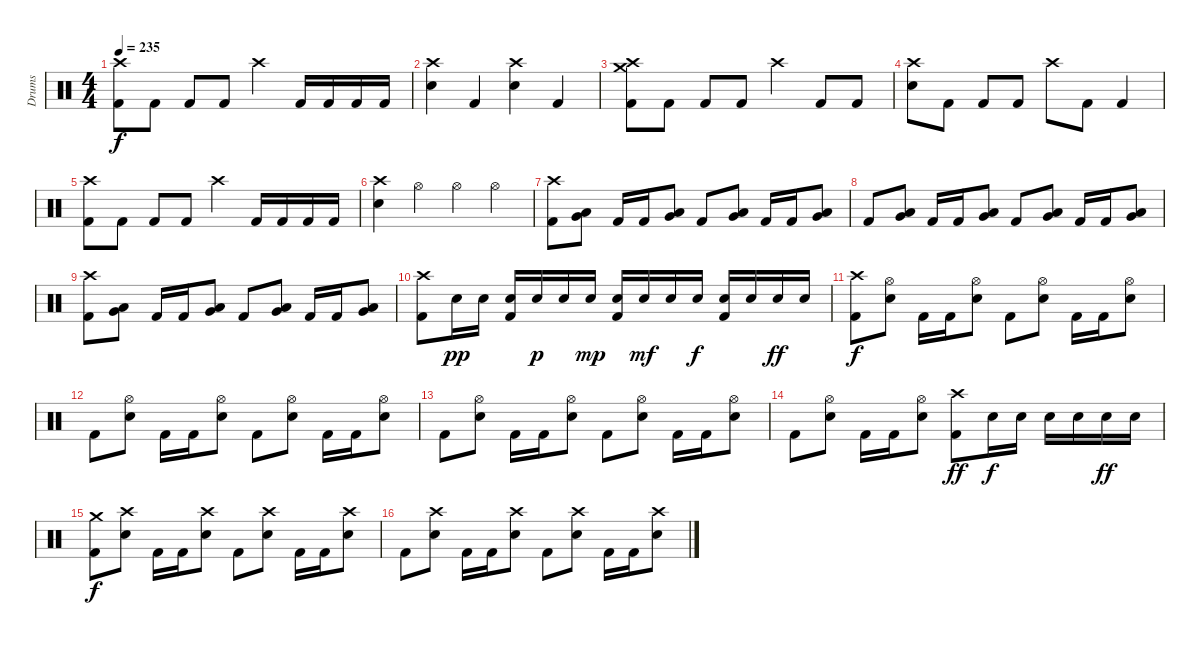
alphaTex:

\track ("Drums" "Drums") {instrument percussion}
\staff {score}
\articulation defaults
\ts (4 4)
\tempo 235
\clef neutral
\ks c
("Crash high (hit)" "Kick (hit) 2").8{dy f} "Kick (hit) 2".8 "Kick (hit) 2".8 "Kick (hit) 2".8 "Crash high (hit)".4 "Kick (hit) 2".16 "Kick (hit) 2".16 "Kick (hit) 2".16 "Kick (hit) 2".16 |
("Crash high (hit)" "Electric Snare (hit)").4 "Kick (hit) 2".4 ("Crash high (hit)" "Electric Snare (hit)").4 "Kick (hit) 2".4 |
("Crash high (hit)" "Crash medium (hit)" "Kick (hit) 2").8 "Kick (hit) 2".8 "Kick (hit) 2".8 "Kick (hit) 2".8 "Crash high (hit)".4 "Kick (hit) 2".8 "Kick (hit) 2".8 |
("Crash high (hit)" "Electric Snare (hit)").8 "Kick (hit) 2".8 "Kick (hit) 2".8 "Kick (hit) 2".8 "Crash high (hit)".8 "Kick (hit) 2".8 "Kick (hit) 2".4 |
("Crash high (hit)" "Kick (hit) 2").8 "Kick (hit) 2".8 "Kick (hit) 2".8 "Kick (hit) 2".8 "Crash high (hit)".4 "Kick (hit) 2".16 "Kick (hit) 2".16 "Kick (hit) 2".16 "Kick (hit) 2".16 |
("Crash high (hit)" "Electric Snare (hit)").4 "Hi-Hat (open)".4 "Hi-Hat (open)".4 "Hi-Hat (open)".4 |
("Crash high (hit)" "Kick (hit) 2").8 ("Low Floor Tom (hit)" "Very Low Tom (hit)").8 "Kick (hit) 2".16 "Kick (hit) 2".16 ("Low Floor Tom (hit)" "Very Low Tom (hit)").8 "Kick (hit) 2".8 ("Low Floor Tom (hit)" "Very Low Tom (hit)").8 "Kick (hit) 2".16 "Kick (hit) 2".16 ("Low Floor Tom (hit)" "Very Low Tom (hit)").8 |
"Kick (hit) 2".8 ("Low Floor Tom (hit)" "Very Low Tom (hit)").8 "Kick (hit) 2".16 "Kick (hit) 2".16 ("Low Floor Tom (hit)" "Very Low Tom (hit)").8 "Kick (hit) 2".8 ("Low Floor Tom (hit)" "Very Low Tom (hit)").8 "Kick (hit) 2".16 "Kick (hit) 2".16 ("Low Floor Tom (hit)" "Very Low Tom (hit)").8 |
("Crash high (hit)" "Kick (hit) 2").8 ("Low Floor Tom (hit)" "Very Low Tom (hit)").8 "Kick (hit) 2".16 "Kick (hit) 2".16 ("Low Floor Tom (hit)" "Very Low Tom (hit)").8 "Kick (hit) 2".8 ("Low Floor Tom (hit)" "Very Low Tom (hit)").8 "Kick (hit) 2".16 "Kick (hit) 2".16 ("Low Floor Tom (hit)" "Very Low Tom (hit)").8 |
("Crash high (hit)" "Kick (hit) 2").8 "Electric Snare (hit)".16{dy pp} "Electric Snare (hit)".16 ("Electric Snare (hit)" "Kick (hit) 2").16 "Electric Snare (hit)".16{dy p} "Electric Snare (hit)".16 "Electric Snare (hit)".16{dy mp} ("Electric Snare (hit)" "Kick (hit) 2").16 "Electric Snare (hit)".16{dy mf} "Electric Snare (hit)".16 "Electric Snare (hit)".16{dy f} ("Electric Snare (hit)" "Kick (hit) 2").16 "Electric Snare (hit)".16 "Electric Snare (hit)".16{dy ff} "Electric Snare (hit)".16 |
("Crash high (hit)" "Kick (hit) 2").8{dy f} ("Hi-Hat (open)" "Electric Snare (hit)").8 "Kick (hit) 2".16 "Kick (hit) 2".16 ("Hi-Hat (open)" "Electric Snare (hit)").8 "Kick (hit) 2".8 ("Hi-Hat (open)" "Electric Snare (hit)").8 "Kick (hit) 2".16 "Kick (hit) 2".16 ("Hi-Hat (open)" "Electric Snare (hit)").8 |
"Kick (hit) 2".8 ("Hi-Hat (open)" "Electric Snare (hit)").8 "Kick (hit) 2".16 "Kick (hit) 2".16 ("Hi-Hat (open)" "Electric Snare (hit)").8 "Kick (hit) 2".8 ("Hi-Hat (open)" "Electric Snare (hit)").8 "Kick (hit) 2".16 "Kick (hit) 2".16 ("Hi-Hat (open)" "Electric Snare (hit)").8 |
"Kick (hit) 2".8 ("Hi-Hat (open)" "Electric Snare (hit)").8 "Kick (hit) 2".16 "Kick (hit) 2".16 ("Hi-Hat (open)" "Electric Snare (hit)").8 "Kick (hit) 2".8 ("Hi-Hat (open)" "Electric Snare (hit)").8 "Kick (hit) 2".16 "Kick (hit) 2".16 ("Hi-Hat (open)" "Electric Snare (hit)").8 |
"Kick (hit) 2".8 ("Hi-Hat (open)" "Electric Snare (hit)").8 "Kick (hit) 2".16 "Kick (hit) 2".16 ("Hi-Hat (open)" "Electric Snare (hit)").8 ("Crash high (hit)" "Kick (hit) 2").8{dy ff} "Electric Snare (hit)".16{dy f} "Electric Snare (hit)".16 "Electric Snare (hit)".16 "Electric Snare (hit)".16 "Electric Snare (hit)".16{dy ff} "Electric Snare (hit)".16 |
("Crash medium (hit)" "Kick (hit) 2").8{dy f} ("Crash high (hit)" "Electric Snare (hit)").8 "Kick (hit) 2".16 "Kick (hit) 2".16 ("Crash high (hit)" "Electric Snare (hit)").8 "Kick (hit) 2".8 ("Crash high (hit)" "Electric Snare (hit)").8 "Kick (hit) 2".16 "Kick (hit) 2".16 ("Crash high (hit)" "Electric Snare (hit)").8 |
"Kick (hit) 2".8 ("Crash high (hit)" "Electric Snare (hit)").8 "Kick (hit) 2".16 "Kick (hit) 2".16 ("Crash high (hit)" "Electric Snare (hit)").8 "Kick (hit) 2".8 ("Crash high (hit)" "Electric Snare (hit)").8 "Kick (hit) 2".16 "Kick (hit) 2".16 ("Crash high (hit)" "Electric Snare (hit)").8
